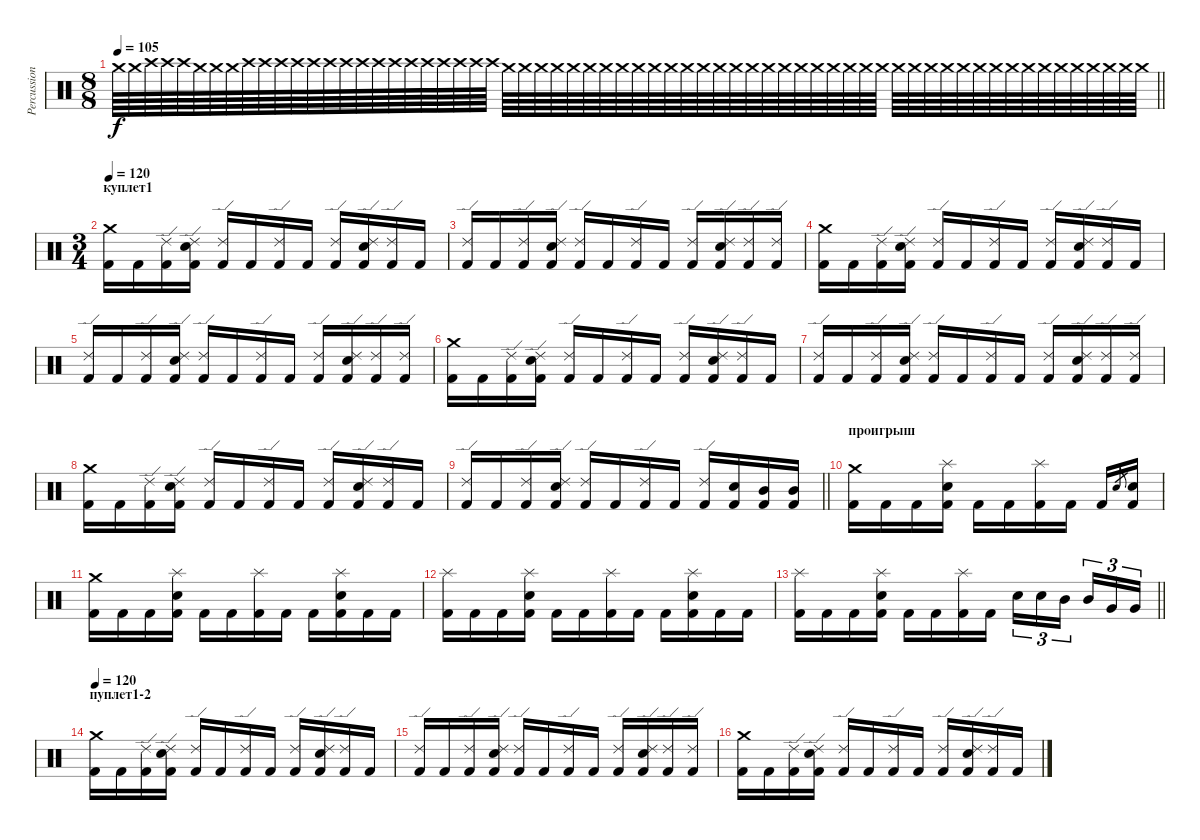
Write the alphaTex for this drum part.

\track ("Percussion" "Percussion") {instrument percussion}
\staff {score}
\articulation defaults
\ts (8 8)
\tempo 105
\clef neutral
\barLineRight lightlight
\ks c "Crash medium (hit)".64{dy f volume 0} "Crash medium (hit)".64 "Crash high (hit)".64 "Crash high (hit)".64 "Crash high (hit)".64 "Crash medium (hit)".64 "Crash medium (hit)".64 "Crash medium (hit)".64 "Crash high (hit)".64{volume 16} "Crash high (hit)".64 "Crash high (hit)".64 "Crash high (hit)".64 "Crash high (hit)".64 "Crash high (hit)".64 "Crash high (hit)".64 "Crash high (hit)".64 "Crash high (hit)".64 "Crash high (hit)".64 "Crash high (hit)".64 "Crash high (hit)".64 "Crash high (hit)".64 "Crash high (hit)".64 "Crash high (hit)".64 "Crash high (hit)".64 "Crash medium (hit)".64 "Crash medium (hit)".64 "Crash medium (hit)".64 "Crash medium (hit)".64 "Crash medium (hit)".64 "Crash medium (hit)".64 "Crash medium (hit)".64 "Crash medium (hit)".64 "Crash medium (hit)".64 "Crash medium (hit)".64 "Crash medium (hit)".64 "Crash medium (hit)".64 "Crash medium (hit)".64 "Crash medium (hit)".64 "Crash medium (hit)".64 "Crash medium (hit)".64 "Crash medium (hit)".64 "Crash medium (hit)".64 "Crash medium (hit)".64 "Crash medium (hit)".64 "Crash medium (hit)".64 "Crash medium (hit)".64 "Crash medium (hit)".64 "Crash medium (hit)".64 "Crash medium (hit)".64 "Crash medium (hit)".64 "Crash medium (hit)".64 "Crash medium (hit)".64 "Crash medium (hit)".64 "Crash medium (hit)".64 "Crash medium (hit)".64 "Crash medium (hit)".64 "Crash medium (hit)".64 "Crash medium (hit)".64 "Crash medium (hit)".64 "Crash medium (hit)".64 "Crash medium (hit)".64 "Crash medium (hit)".64 "Crash medium (hit)".64 "Crash medium (hit)".64
|
\ts (3 4)
\section ("" "куплет1")
\tempo 120
("Kick (hit) 2" "Crash medium (hit)").16 "Kick (hit) 2".16 ("Kick (hit) 2" "Ride (edge) 2").16 ("Kick (hit) 2" "Electric Snare (hit)" "Ride (edge) 2").16 ("Kick (hit) 2" "Ride (edge) 2").16 "Kick (hit) 2".16 ("Kick (hit) 2" "Ride (edge) 2").16 "Kick (hit) 2".16 ("Kick (hit) 2" "Ride (edge) 2").16 ("Kick (hit) 2" "Electric Snare (hit)" "Ride (edge) 2").16 ("Kick (hit) 2" "Ride (edge) 2").16 "Kick (hit) 2".16 |
("Kick (hit) 2" "Ride (edge) 2").16 "Kick (hit) 2".16 ("Kick (hit) 2" "Ride (edge) 2").16 ("Kick (hit) 2" "Electric Snare (hit)" "Ride (edge) 2").16 ("Kick (hit) 2" "Ride (edge) 2").16 "Kick (hit) 2".16 ("Kick (hit) 2" "Ride (edge) 2").16 "Kick (hit) 2".16 ("Kick (hit) 2" "Ride (edge) 2").16 ("Kick (hit) 2" "Electric Snare (hit)" "Ride (edge) 2").16 ("Kick (hit) 2" "Ride (edge) 2").16 ("Kick (hit) 2" "Ride (edge) 2").16 |
("Kick (hit) 2" "Crash medium (hit)").16 "Kick (hit) 2".16 ("Kick (hit) 2" "Ride (edge) 2").16 ("Kick (hit) 2" "Electric Snare (hit)" "Ride (edge) 2").16 ("Kick (hit) 2" "Ride (edge) 2").16 "Kick (hit) 2".16 ("Kick (hit) 2" "Ride (edge) 2").16 "Kick (hit) 2".16 ("Kick (hit) 2" "Ride (edge) 2").16 ("Kick (hit) 2" "Electric Snare (hit)" "Ride (edge) 2").16 ("Kick (hit) 2" "Ride (edge) 2").16 "Kick (hit) 2".16 |
("Kick (hit) 2" "Ride (edge) 2").16 "Kick (hit) 2".16 ("Kick (hit) 2" "Ride (edge) 2").16 ("Kick (hit) 2" "Electric Snare (hit)" "Ride (edge) 2").16 ("Kick (hit) 2" "Ride (edge) 2").16 "Kick (hit) 2".16 ("Kick (hit) 2" "Ride (edge) 2").16 "Kick (hit) 2".16 ("Kick (hit) 2" "Ride (edge) 2").16 ("Kick (hit) 2" "Electric Snare (hit)" "Ride (edge) 2").16 ("Kick (hit) 2" "Ride (edge) 2").16 ("Kick (hit) 2" "Ride (edge) 2").16 |
("Kick (hit) 2" "Crash medium (hit)").16 "Kick (hit) 2".16 ("Kick (hit) 2" "Ride (edge) 2").16 ("Kick (hit) 2" "Electric Snare (hit)" "Ride (edge) 2").16 ("Kick (hit) 2" "Ride (edge) 2").16 "Kick (hit) 2".16 ("Kick (hit) 2" "Ride (edge) 2").16 "Kick (hit) 2".16 ("Kick (hit) 2" "Ride (edge) 2").16 ("Kick (hit) 2" "Electric Snare (hit)" "Ride (edge) 2").16 ("Kick (hit) 2" "Ride (edge) 2").16 "Kick (hit) 2".16 |
("Kick (hit) 2" "Ride (edge) 2").16 "Kick (hit) 2".16 ("Kick (hit) 2" "Ride (edge) 2").16 ("Kick (hit) 2" "Electric Snare (hit)" "Ride (edge) 2").16 ("Kick (hit) 2" "Ride (edge) 2").16 "Kick (hit) 2".16 ("Kick (hit) 2" "Ride (edge) 2").16 "Kick (hit) 2".16 ("Kick (hit) 2" "Ride (edge) 2").16 ("Kick (hit) 2" "Electric Snare (hit)" "Ride (edge) 2").16 ("Kick (hit) 2" "Ride (edge) 2").16 ("Kick (hit) 2" "Ride (edge) 2").16 |
("Kick (hit) 2" "Crash medium (hit)").16 "Kick (hit) 2".16 ("Kick (hit) 2" "Ride (edge) 2").16 ("Kick (hit) 2" "Electric Snare (hit)" "Ride (edge) 2").16 ("Kick (hit) 2" "Ride (edge) 2").16 "Kick (hit) 2".16 ("Kick (hit) 2" "Ride (edge) 2").16 "Kick (hit) 2".16 ("Kick (hit) 2" "Ride (edge) 2").16 ("Kick (hit) 2" "Electric Snare (hit)" "Ride (edge) 2").16 ("Kick (hit) 2" "Ride (edge) 2").16 "Kick (hit) 2".16 |
\barLineRight lightlight
("Kick (hit) 2" "Ride (edge) 2").16 "Kick (hit) 2".16 ("Kick (hit) 2" "Ride (edge) 2").16 ("Kick (hit) 2" "Electric Snare (hit)" "Ride (edge) 2").16 ("Kick (hit) 2" "Ride (edge) 2").16 "Kick (hit) 2".16 ("Kick (hit) 2" "Ride (edge) 2").16 "Kick (hit) 2".16 ("Kick (hit) 2" "Ride (edge) 2").16 ("Kick (hit) 2" "Electric Snare (hit)").16 ("Kick (hit) 2" "Mid Tom (hit)").16 ("Kick (hit) 2" "Mid Tom (hit)").16 |
\section ("" "проигрыш")
("Kick (hit) 2" "Crash medium (hit)").16 "Kick (hit) 2".16 "Kick (hit) 2".16 ("Kick (hit) 2" "Electric Snare (hit)" "Splash (hit)").16 "Kick (hit) 2".16 "Kick (hit) 2".16 ("Kick (hit) 2" "Splash (hit)").16 "Kick (hit) 2".16 "Kick (hit) 2".16 "Electric Snare (hit)".8{gr} ("Kick (hit) 2" "Electric Snare (hit)").16 |
("Kick (hit) 2" "Crash medium (hit)").16 "Kick (hit) 2".16 "Kick (hit) 2".16 ("Kick (hit) 2" "Electric Snare (hit)" "Splash (hit)").16 "Kick (hit) 2".16 "Kick (hit) 2".16 ("Kick (hit) 2" "Splash (hit)").16 "Kick (hit) 2".16 "Kick (hit) 2".16 ("Kick (hit) 2" "Electric Snare (hit)" "Splash (hit)").16 "Kick (hit) 2".16 "Kick (hit) 2".16 |
("Kick (hit) 2" "Splash (hit)").16 "Kick (hit) 2".16 "Kick (hit) 2".16 ("Kick (hit) 2" "Electric Snare (hit)" "Splash (hit)").16 "Kick (hit) 2".16 "Kick (hit) 2".16 ("Kick (hit) 2" "Splash (hit)").16 "Kick (hit) 2".16 "Kick (hit) 2".16 ("Kick (hit) 2" "Electric Snare (hit)" "Splash (hit)").16 "Kick (hit) 2".16 "Kick (hit) 2".16 |
\barLineRight lightlight
("Kick (hit) 2" "Splash (hit)").16 "Kick (hit) 2".16 "Kick (hit) 2".16 ("Kick (hit) 2" "Electric Snare (hit)" "Splash (hit)").16 "Kick (hit) 2".16 "Kick (hit) 2".16 ("Kick (hit) 2" "Splash (hit)").16 "Kick (hit) 2".16 "Electric Snare (hit)".16{tu (3 2)} "Electric Snare (hit)".16{tu (3 2)} "Mid Tom (hit)".16{tu (3 2) beam splitsecondary} "Mid Tom (hit)".16{tu (3 2)} "Very Low Tom (hit)".16{tu (3 2)} "Very Low Tom (hit)".16{tu (3 2)} |
\section ("" "пуплет1-2")
\tempo 120
("Kick (hit) 2" "Crash medium (hit)").16 "Kick (hit) 2".16 ("Kick (hit) 2" "Ride (edge) 2").16 ("Kick (hit) 2" "Electric Snare (hit)" "Ride (edge) 2").16 ("Kick (hit) 2" "Ride (edge) 2").16 "Kick (hit) 2".16 ("Kick (hit) 2" "Ride (edge) 2").16 "Kick (hit) 2".16 ("Kick (hit) 2" "Ride (edge) 2").16 ("Kick (hit) 2" "Electric Snare (hit)" "Ride (edge) 2").16 ("Kick (hit) 2" "Ride (edge) 2").16 "Kick (hit) 2".16 |
("Kick (hit) 2" "Ride (edge) 2").16 "Kick (hit) 2".16 ("Kick (hit) 2" "Ride (edge) 2").16 ("Kick (hit) 2" "Electric Snare (hit)" "Ride (edge) 2").16 ("Kick (hit) 2" "Ride (edge) 2").16 "Kick (hit) 2".16 ("Kick (hit) 2" "Ride (edge) 2").16 "Kick (hit) 2".16 ("Kick (hit) 2" "Ride (edge) 2").16 ("Kick (hit) 2" "Electric Snare (hit)" "Ride (edge) 2").16 ("Kick (hit) 2" "Ride (edge) 2").16 ("Kick (hit) 2" "Ride (edge) 2").16 |
("Kick (hit) 2" "Crash medium (hit)").16 "Kick (hit) 2".16 ("Kick (hit) 2" "Ride (edge) 2").16 ("Kick (hit) 2" "Electric Snare (hit)" "Ride (edge) 2").16 ("Kick (hit) 2" "Ride (edge) 2").16 "Kick (hit) 2".16 ("Kick (hit) 2" "Ride (edge) 2").16 "Kick (hit) 2".16 ("Kick (hit) 2" "Ride (edge) 2").16 ("Kick (hit) 2" "Electric Snare (hit)" "Ride (edge) 2").16 ("Kick (hit) 2" "Ride (edge) 2").16 "Kick (hit) 2".16
